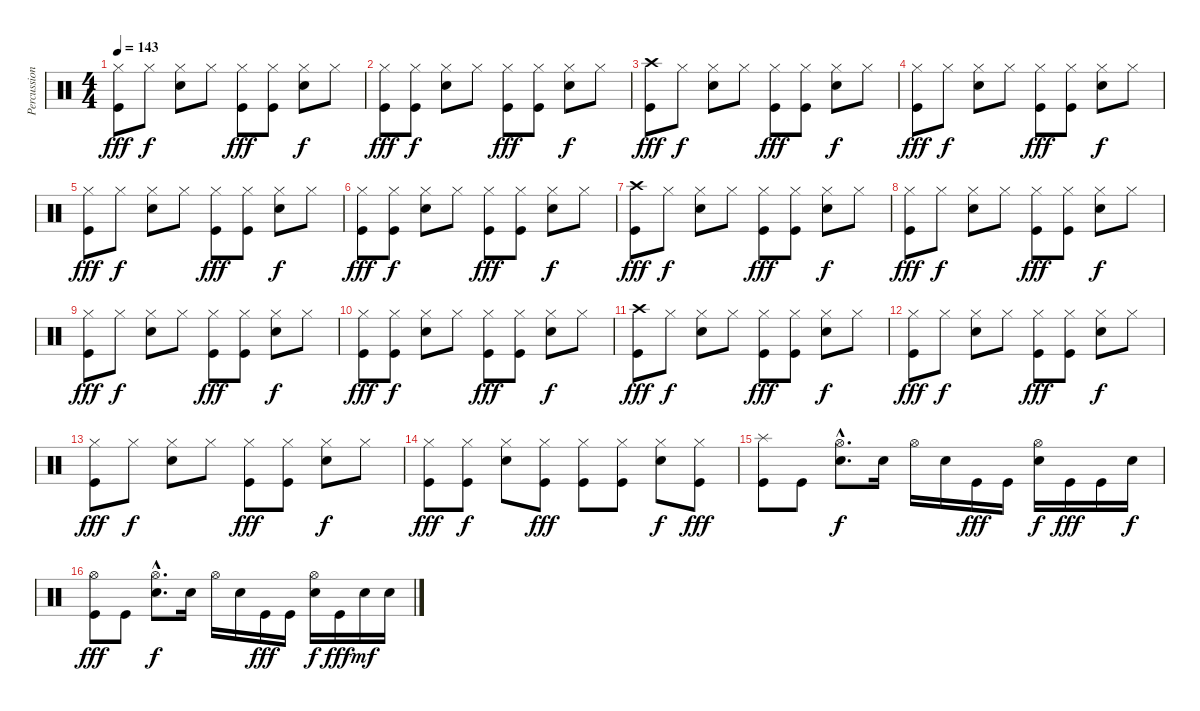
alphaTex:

\track ("Percussion" "Percussion") {instrument percussion}
\staff {score}
\articulation defaults
\ts (4 4)
\tempo 143
\clef neutral
\ks c
("Kick (hit)" "Hi-Hat (closed)").8{dy fff} "Hi-Hat (closed)".8{dy f} ("Electric Snare (hit)" "Hi-Hat (closed)").8 "Hi-Hat (closed)".8 ("Kick (hit)" "Hi-Hat (closed)").8{dy fff} ("Kick (hit)" "Hi-Hat (closed)").8 ("Electric Snare (hit)" "Hi-Hat (closed)").8{dy f} "Hi-Hat (closed)".8 |
("Kick (hit)" "Hi-Hat (closed)").8{dy fff} ("Kick (hit)" "Hi-Hat (closed)").8{dy f} ("Electric Snare (hit)" "Hi-Hat (closed)").8 "Hi-Hat (closed)".8 ("Kick (hit)" "Hi-Hat (closed)").8{dy fff} ("Kick (hit)" "Hi-Hat (closed)").8 ("Electric Snare (hit)" "Hi-Hat (closed)").8{dy f} "Hi-Hat (closed)".8 |
("Crash high (hit)" "Kick (hit)").8{dy fff} "Hi-Hat (closed)".8{dy f} ("Electric Snare (hit)" "Hi-Hat (closed)").8 "Hi-Hat (closed)".8 ("Kick (hit)" "Hi-Hat (closed)").8{dy fff} ("Kick (hit)" "Hi-Hat (closed)").8 ("Electric Snare (hit)" "Hi-Hat (closed)").8{dy f} "Hi-Hat (closed)".8 |
("Kick (hit)" "Hi-Hat (closed)").8{dy fff} "Hi-Hat (closed)".8{dy f} ("Electric Snare (hit)" "Hi-Hat (closed)").8 "Hi-Hat (closed)".8 ("Kick (hit)" "Hi-Hat (closed)").8{dy fff} ("Kick (hit)" "Hi-Hat (closed)").8 ("Electric Snare (hit)" "Hi-Hat (closed)").8{dy f} "Hi-Hat (closed)".8 |
("Kick (hit)" "Hi-Hat (closed)").8{dy fff} "Hi-Hat (closed)".8{dy f} ("Electric Snare (hit)" "Hi-Hat (closed)").8 "Hi-Hat (closed)".8 ("Kick (hit)" "Hi-Hat (closed)").8{dy fff} ("Kick (hit)" "Hi-Hat (closed)").8 ("Electric Snare (hit)" "Hi-Hat (closed)").8{dy f} "Hi-Hat (closed)".8 |
("Kick (hit)" "Hi-Hat (closed)").8{dy fff} ("Kick (hit)" "Hi-Hat (closed)").8{dy f} ("Electric Snare (hit)" "Hi-Hat (closed)").8 "Hi-Hat (closed)".8 ("Kick (hit)" "Hi-Hat (closed)").8{dy fff} ("Kick (hit)" "Hi-Hat (closed)").8 ("Electric Snare (hit)" "Hi-Hat (closed)").8{dy f} "Hi-Hat (closed)".8 |
("Crash high (hit)" "Kick (hit)").8{dy fff} "Hi-Hat (closed)".8{dy f} ("Electric Snare (hit)" "Hi-Hat (closed)").8 "Hi-Hat (closed)".8 ("Kick (hit)" "Hi-Hat (closed)").8{dy fff} ("Kick (hit)" "Hi-Hat (closed)").8 ("Electric Snare (hit)" "Hi-Hat (closed)").8{dy f} "Hi-Hat (closed)".8 |
("Kick (hit)" "Hi-Hat (closed)").8{dy fff} "Hi-Hat (closed)".8{dy f} ("Electric Snare (hit)" "Hi-Hat (closed)").8 "Hi-Hat (closed)".8 ("Kick (hit)" "Hi-Hat (closed)").8{dy fff} ("Kick (hit)" "Hi-Hat (closed)").8 ("Electric Snare (hit)" "Hi-Hat (closed)").8{dy f} "Hi-Hat (closed)".8 |
("Kick (hit)" "Hi-Hat (closed)").8{dy fff} "Hi-Hat (closed)".8{dy f} ("Electric Snare (hit)" "Hi-Hat (closed)").8 "Hi-Hat (closed)".8 ("Kick (hit)" "Hi-Hat (closed)").8{dy fff} ("Kick (hit)" "Hi-Hat (closed)").8 ("Electric Snare (hit)" "Hi-Hat (closed)").8{dy f} "Hi-Hat (closed)".8 |
("Kick (hit)" "Hi-Hat (closed)").8{dy fff} ("Kick (hit)" "Hi-Hat (closed)").8{dy f} ("Electric Snare (hit)" "Hi-Hat (closed)").8 "Hi-Hat (closed)".8 ("Kick (hit)" "Hi-Hat (closed)").8{dy fff} ("Kick (hit)" "Hi-Hat (closed)").8 ("Electric Snare (hit)" "Hi-Hat (closed)").8{dy f} "Hi-Hat (closed)".8 |
("Crash high (hit)" "Kick (hit)").8{dy fff} "Hi-Hat (closed)".8{dy f} ("Electric Snare (hit)" "Hi-Hat (closed)").8 "Hi-Hat (closed)".8 ("Kick (hit)" "Hi-Hat (closed)").8{dy fff} ("Kick (hit)" "Hi-Hat (closed)").8 ("Electric Snare (hit)" "Hi-Hat (closed)").8{dy f} "Hi-Hat (closed)".8 |
("Kick (hit)" "Hi-Hat (closed)").8{dy fff} "Hi-Hat (closed)".8{dy f} ("Electric Snare (hit)" "Hi-Hat (closed)").8 "Hi-Hat (closed)".8 ("Kick (hit)" "Hi-Hat (closed)").8{dy fff} ("Kick (hit)" "Hi-Hat (closed)").8 ("Electric Snare (hit)" "Hi-Hat (closed)").8{dy f} "Hi-Hat (closed)".8 |
("Kick (hit)" "Hi-Hat (closed)").8{dy fff} "Hi-Hat (closed)".8{dy f} ("Electric Snare (hit)" "Hi-Hat (closed)").8 "Hi-Hat (closed)".8 ("Kick (hit)" "Hi-Hat (closed)").8{dy fff} ("Kick (hit)" "Hi-Hat (closed)").8 ("Electric Snare (hit)" "Hi-Hat (closed)").8{dy f} "Hi-Hat (closed)".8 |
("Kick (hit)" "Hi-Hat (closed)").8{dy fff} ("Kick (hit)" "Hi-Hat (closed)").8{dy f} ("Electric Snare (hit)" "Hi-Hat (closed)").8 ("Kick (hit)" "Hi-Hat (closed)").8{dy fff} ("Kick (hit)" "Hi-Hat (closed)").8 ("Kick (hit)" "Hi-Hat (closed)").8 ("Electric Snare (hit)" "Hi-Hat (closed)").8{dy f} ("Kick (hit)" "Hi-Hat (closed)").8{dy fff} |
("Splash (hit)" "Kick (hit)").8 "Kick (hit)".8 ("Hi-Hat (open)"{hac} "Electric Snare (hit)"{hac}).8{d dy f} "Electric Snare (hit)".16 "Hi-Hat (open)".16 "Electric Snare (hit)".16 "Kick (hit)".16{dy fff} "Kick (hit)".16 ("Hi-Hat (open)" "Electric Snare (hit)").16{dy f} "Kick (hit)".16{dy fff} "Kick (hit)".16 "Electric Snare (hit)".16{dy f} |
("Hi-Hat (open)" "Kick (hit)").8{dy fff} "Kick (hit)".8 ("Hi-Hat (open)"{hac} "Electric Snare (hit)"{hac}).8{d dy f} "Electric Snare (hit)".16 "Hi-Hat (open)".16 "Electric Snare (hit)".16 "Kick (hit)".16{dy fff} "Kick (hit)".16 ("Hi-Hat (open)" "Electric Snare (hit)").16{dy f} "Kick (hit)".16{dy fff} "Electric Snare (hit)".16{dy mf} "Electric Snare (hit)".16
